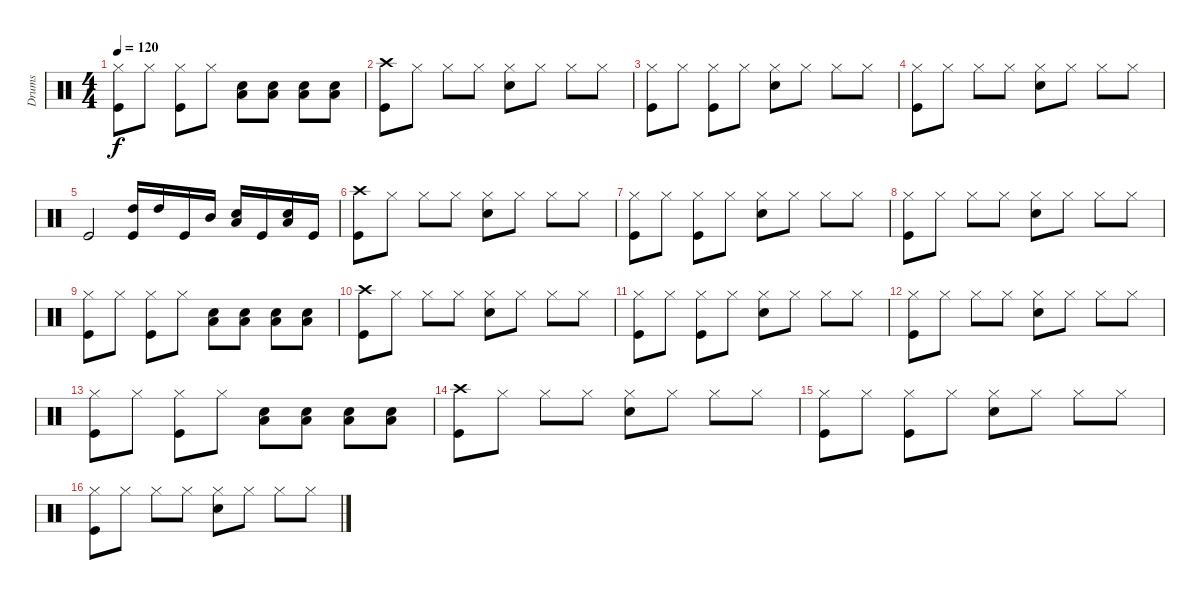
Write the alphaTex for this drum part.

\track ("Drums" "Drums") {instrument percussion}
\staff {score}
\articulation defaults
\ts (4 4)
\tempo 120
\clef neutral
\ks c
("Hi-Hat (closed)" "Kick (hit)").8{dy f} "Hi-Hat (closed)".8 ("Hi-Hat (closed)" "Kick (hit)").8 "Hi-Hat (closed)".8 ("Low Tom (hit)" "Snare (hit) 2").8 ("Low Tom (hit)" "Snare (hit) 2").8 ("Low Tom (hit)" "Snare (hit) 2").8 ("Low Tom (hit)" "Snare (hit) 2").8 |
("Crash high (hit)" "Kick (hit)").8 "Hi-Hat (closed)".8 "Hi-Hat (closed)".8 "Hi-Hat (closed)".8 ("Hi-Hat (closed)" "Snare (hit) 2").8 "Hi-Hat (closed)".8 "Hi-Hat (closed)".8 "Hi-Hat (closed)".8 |
("Hi-Hat (closed)" "Kick (hit)").8 "Hi-Hat (closed)".8 ("Hi-Hat (closed)" "Kick (hit)").8 "Hi-Hat (closed)".8 ("Hi-Hat (closed)" "Snare (hit) 2").8 "Hi-Hat (closed)".8 "Hi-Hat (closed)".8 "Hi-Hat (closed)".8 |
("Hi-Hat (closed)" "Kick (hit)").8 "Hi-Hat (closed)".8 "Hi-Hat (closed)".8 "Hi-Hat (closed)".8 ("Hi-Hat (closed)" "Snare (hit) 2").8 "Hi-Hat (closed)".8 "Hi-Hat (closed)".8 "Hi-Hat (closed)".8 |
"Kick (hit)".2 ("High Tom (hit)" "Kick (hit)").16 "High Tom (hit)".16 "Kick (hit)".16 "Mid Tom (hit)".16 ("Low Tom (hit)" "Snare (hit) 2").16 "Kick (hit)".16 ("Low Tom (hit)" "Snare (hit) 2").16 "Kick (hit)".16 |
("Crash high (hit)" "Kick (hit)").8 "Hi-Hat (closed)".8 "Hi-Hat (closed)".8 "Hi-Hat (closed)".8 ("Hi-Hat (closed)" "Snare (hit) 2").8 "Hi-Hat (closed)".8 "Hi-Hat (closed)".8 "Hi-Hat (closed)".8 |
("Hi-Hat (closed)" "Kick (hit)").8 "Hi-Hat (closed)".8 ("Hi-Hat (closed)" "Kick (hit)").8 "Hi-Hat (closed)".8 ("Hi-Hat (closed)" "Snare (hit) 2").8 "Hi-Hat (closed)".8 "Hi-Hat (closed)".8 "Hi-Hat (closed)".8 |
("Hi-Hat (closed)" "Kick (hit)").8 "Hi-Hat (closed)".8 "Hi-Hat (closed)".8 "Hi-Hat (closed)".8 ("Hi-Hat (closed)" "Snare (hit) 2").8 "Hi-Hat (closed)".8 "Hi-Hat (closed)".8 "Hi-Hat (closed)".8 |
("Hi-Hat (closed)" "Kick (hit)").8 "Hi-Hat (closed)".8 ("Hi-Hat (closed)" "Kick (hit)").8 "Hi-Hat (closed)".8 ("Low Tom (hit)" "Snare (hit) 2").8 ("Low Tom (hit)" "Snare (hit) 2").8 ("Low Tom (hit)" "Snare (hit) 2").8 ("Low Tom (hit)" "Snare (hit) 2").8 |
("Crash high (hit)" "Kick (hit)").8 "Hi-Hat (closed)".8 "Hi-Hat (closed)".8 "Hi-Hat (closed)".8 ("Hi-Hat (closed)" "Snare (hit) 2").8 "Hi-Hat (closed)".8 "Hi-Hat (closed)".8 "Hi-Hat (closed)".8 |
("Hi-Hat (closed)" "Kick (hit)").8 "Hi-Hat (closed)".8 ("Hi-Hat (closed)" "Kick (hit)").8 "Hi-Hat (closed)".8 ("Hi-Hat (closed)" "Snare (hit) 2").8 "Hi-Hat (closed)".8 "Hi-Hat (closed)".8 "Hi-Hat (closed)".8 |
("Hi-Hat (closed)" "Kick (hit)").8 "Hi-Hat (closed)".8 "Hi-Hat (closed)".8 "Hi-Hat (closed)".8 ("Hi-Hat (closed)" "Snare (hit) 2").8 "Hi-Hat (closed)".8 "Hi-Hat (closed)".8 "Hi-Hat (closed)".8 |
("Hi-Hat (closed)" "Kick (hit)").8 "Hi-Hat (closed)".8 ("Hi-Hat (closed)" "Kick (hit)").8 "Hi-Hat (closed)".8 ("Low Tom (hit)" "Snare (hit) 2").8 ("Low Tom (hit)" "Snare (hit) 2").8 ("Low Tom (hit)" "Snare (hit) 2").8 ("Low Tom (hit)" "Snare (hit) 2").8 |
("Crash high (hit)" "Kick (hit)").8 "Hi-Hat (closed)".8 "Hi-Hat (closed)".8 "Hi-Hat (closed)".8 ("Hi-Hat (closed)" "Snare (hit) 2").8 "Hi-Hat (closed)".8 "Hi-Hat (closed)".8 "Hi-Hat (closed)".8 |
("Hi-Hat (closed)" "Kick (hit)").8 "Hi-Hat (closed)".8 ("Hi-Hat (closed)" "Kick (hit)").8 "Hi-Hat (closed)".8 ("Hi-Hat (closed)" "Snare (hit) 2").8 "Hi-Hat (closed)".8 "Hi-Hat (closed)".8 "Hi-Hat (closed)".8 |
("Hi-Hat (closed)" "Kick (hit)").8 "Hi-Hat (closed)".8 "Hi-Hat (closed)".8 "Hi-Hat (closed)".8 ("Hi-Hat (closed)" "Snare (hit) 2").8 "Hi-Hat (closed)".8 "Hi-Hat (closed)".8 "Hi-Hat (closed)".8
